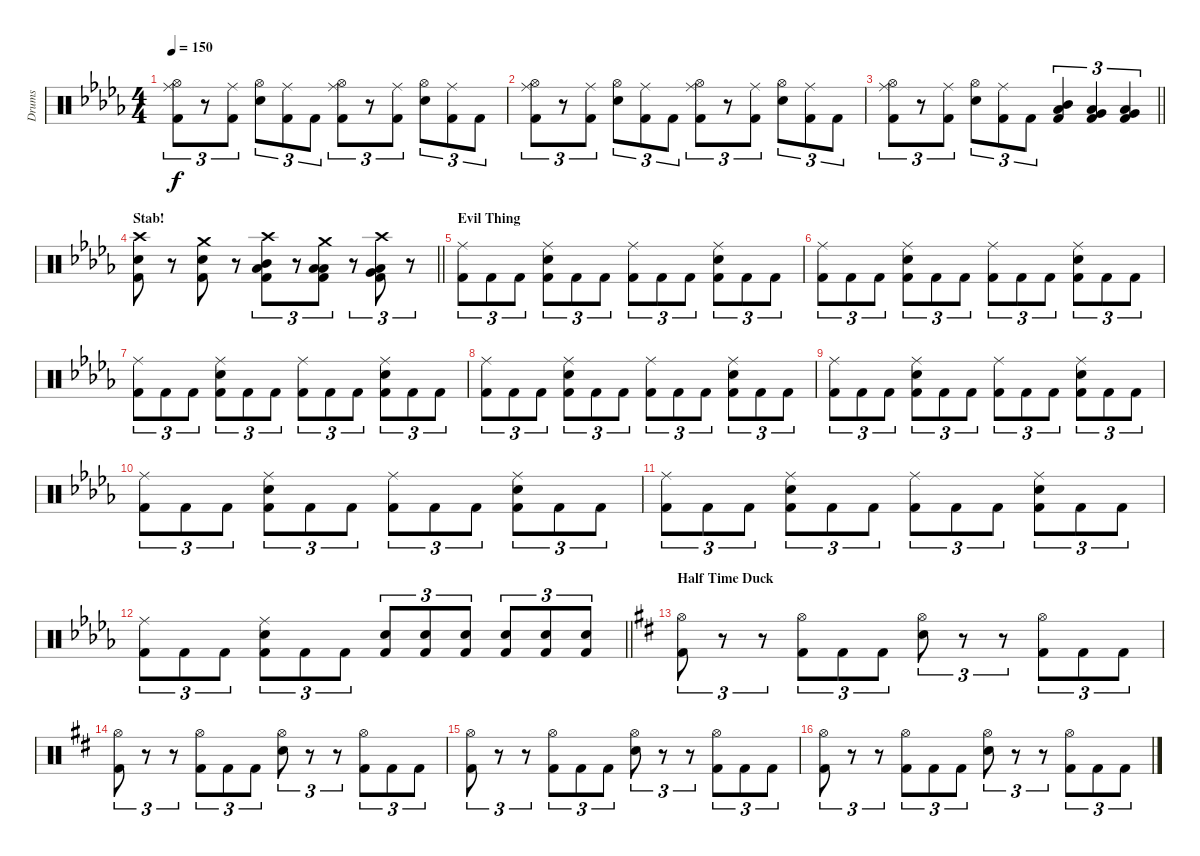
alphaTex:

\track ("Drums" "Drums") {instrument percussion}
\staff {score}
\articulation defaults
\ts (4 4)
\tempo 150
\clef neutral
\ks bbminor
("Hi-Hat (open)" "Ride (middle)" "Kick (hit) 2").8{tu (3 2) dy f} r.8{tu (3 2)} ("Ride (middle)" "Kick (hit) 2").8{tu (3 2)} ("Hi-Hat (open)" "Snare (hit) 2").8{tu (3 2)} ("Ride (middle)" "Kick (hit) 2").8{tu (3 2)} "Kick (hit) 2".8{tu (3 2)} ("Hi-Hat (open)" "Ride (middle)" "Kick (hit) 2").8{tu (3 2)} r.8{tu (3 2)} ("Ride (middle)" "Kick (hit) 2").8{tu (3 2)} ("Hi-Hat (open)" "Snare (hit) 2").8{tu (3 2)} ("Ride (middle)" "Kick (hit) 2").8{tu (3 2)} "Kick (hit) 2".8{tu (3 2)} |
("Hi-Hat (open)" "Ride (middle)" "Kick (hit) 2").8{tu (3 2)} r.8{tu (3 2)} ("Ride (middle)" "Kick (hit) 2").8{tu (3 2)} ("Hi-Hat (open)" "Snare (hit) 2").8{tu (3 2)} ("Ride (middle)" "Kick (hit) 2").8{tu (3 2)} "Kick (hit) 2".8{tu (3 2)} ("Hi-Hat (open)" "Ride (middle)" "Kick (hit) 2").8{tu (3 2)} r.8{tu (3 2)} ("Ride (middle)" "Kick (hit) 2").8{tu (3 2)} ("Hi-Hat (open)" "Snare (hit) 2").8{tu (3 2)} ("Ride (middle)" "Kick (hit) 2").8{tu (3 2)} "Kick (hit) 2".8{tu (3 2)} |
\barLineRight lightlight
("Hi-Hat (open)" "Ride (middle)" "Kick (hit) 2").8{tu (3 2)} r.8{tu (3 2)} ("Ride (middle)" "Kick (hit) 2").8{tu (3 2)} ("Hi-Hat (open)" "Snare (hit) 2").8{tu (3 2)} ("Ride (middle)" "Kick (hit) 2").8{tu (3 2)} "Kick (hit) 2".8{tu (3 2)} ("Mid Tom (hit)" "Low Tom (hit)" "Kick (hit) 2").4{tu (3 2)} ("Low Tom (hit)" "Very Low Tom (hit)" "Kick (hit) 2").4{tu (3 2)} ("Very Low Tom (hit)" "Low Floor Tom (hit)" "Kick (hit) 2").4{tu (3 2)} |
\section ("" "Stab!")
\barLineRight lightlight
("Crash high (hit)" "Snare (hit) 2" "Kick (hit) 2").8 r.8 ("Crash medium (hit)" "Snare (hit) 2" "Kick (hit) 2").8 r.8 ("Crash high (hit)" "Mid Tom (hit)" "Low Floor Tom (hit)" "Kick (hit) 2").8{tu (3 2)} r.8{tu (3 2)} ("Crash medium (hit)" "Low Tom (hit)" "Low Floor Tom (hit)" "Kick (hit) 2").8{tu (3 2)} r.8{tu (3 2)} ("Crash high (hit)" "Very Low Tom (hit)" "Low Floor Tom (hit)" "Kick (hit) 2").8{tu (3 2)} r.8{tu (3 2)} |
\section ("" "Evil Thing")
("Ride (middle)" "Kick (hit) 2").8{tu (3 2)} "Kick (hit) 2".8{tu (3 2)} "Kick (hit) 2".8{tu (3 2)} ("Ride (middle)" "Snare (hit) 2" "Kick (hit) 2").8{tu (3 2)} "Kick (hit) 2".8{tu (3 2)} "Kick (hit) 2".8{tu (3 2)} ("Ride (middle)" "Kick (hit) 2").8{tu (3 2)} "Kick (hit) 2".8{tu (3 2)} "Kick (hit) 2".8{tu (3 2)} ("Ride (middle)" "Snare (hit) 2" "Kick (hit) 2").8{tu (3 2)} "Kick (hit) 2".8{tu (3 2)} "Kick (hit) 2".8{tu (3 2)} |
("Ride (middle)" "Kick (hit) 2").8{tu (3 2)} "Kick (hit) 2".8{tu (3 2)} "Kick (hit) 2".8{tu (3 2)} ("Ride (middle)" "Snare (hit) 2" "Kick (hit) 2").8{tu (3 2)} "Kick (hit) 2".8{tu (3 2)} "Kick (hit) 2".8{tu (3 2)} ("Ride (middle)" "Kick (hit) 2").8{tu (3 2)} "Kick (hit) 2".8{tu (3 2)} "Kick (hit) 2".8{tu (3 2)} ("Ride (middle)" "Snare (hit) 2" "Kick (hit) 2").8{tu (3 2)} "Kick (hit) 2".8{tu (3 2)} "Kick (hit) 2".8{tu (3 2)} |
("Ride (middle)" "Kick (hit) 2").8{tu (3 2)} "Kick (hit) 2".8{tu (3 2)} "Kick (hit) 2".8{tu (3 2)} ("Ride (middle)" "Snare (hit) 2" "Kick (hit) 2").8{tu (3 2)} "Kick (hit) 2".8{tu (3 2)} "Kick (hit) 2".8{tu (3 2)} ("Ride (middle)" "Kick (hit) 2").8{tu (3 2)} "Kick (hit) 2".8{tu (3 2)} "Kick (hit) 2".8{tu (3 2)} ("Ride (middle)" "Snare (hit) 2" "Kick (hit) 2").8{tu (3 2)} "Kick (hit) 2".8{tu (3 2)} "Kick (hit) 2".8{tu (3 2)} |
("Ride (middle)" "Kick (hit) 2").8{tu (3 2)} "Kick (hit) 2".8{tu (3 2)} "Kick (hit) 2".8{tu (3 2)} ("Ride (middle)" "Snare (hit) 2" "Kick (hit) 2").8{tu (3 2)} "Kick (hit) 2".8{tu (3 2)} "Kick (hit) 2".8{tu (3 2)} ("Ride (middle)" "Kick (hit) 2").8{tu (3 2)} "Kick (hit) 2".8{tu (3 2)} "Kick (hit) 2".8{tu (3 2)} ("Ride (middle)" "Snare (hit) 2" "Kick (hit) 2").8{tu (3 2)} "Kick (hit) 2".8{tu (3 2)} "Kick (hit) 2".8{tu (3 2)} |
("Ride (middle)" "Kick (hit) 2").8{tu (3 2)} "Kick (hit) 2".8{tu (3 2)} "Kick (hit) 2".8{tu (3 2)} ("Ride (middle)" "Snare (hit) 2" "Kick (hit) 2").8{tu (3 2)} "Kick (hit) 2".8{tu (3 2)} "Kick (hit) 2".8{tu (3 2)} ("Ride (middle)" "Kick (hit) 2").8{tu (3 2)} "Kick (hit) 2".8{tu (3 2)} "Kick (hit) 2".8{tu (3 2)} ("Ride (middle)" "Snare (hit) 2" "Kick (hit) 2").8{tu (3 2)} "Kick (hit) 2".8{tu (3 2)} "Kick (hit) 2".8{tu (3 2)} |
("Ride (middle)" "Kick (hit) 2").8{tu (3 2)} "Kick (hit) 2".8{tu (3 2)} "Kick (hit) 2".8{tu (3 2)} ("Ride (middle)" "Snare (hit) 2" "Kick (hit) 2").8{tu (3 2)} "Kick (hit) 2".8{tu (3 2)} "Kick (hit) 2".8{tu (3 2)} ("Ride (middle)" "Kick (hit) 2").8{tu (3 2)} "Kick (hit) 2".8{tu (3 2)} "Kick (hit) 2".8{tu (3 2)} ("Ride (middle)" "Snare (hit) 2" "Kick (hit) 2").8{tu (3 2)} "Kick (hit) 2".8{tu (3 2)} "Kick (hit) 2".8{tu (3 2)} |
("Ride (middle)" "Kick (hit) 2").8{tu (3 2)} "Kick (hit) 2".8{tu (3 2)} "Kick (hit) 2".8{tu (3 2)} ("Ride (middle)" "Snare (hit) 2" "Kick (hit) 2").8{tu (3 2)} "Kick (hit) 2".8{tu (3 2)} "Kick (hit) 2".8{tu (3 2)} ("Ride (middle)" "Kick (hit) 2").8{tu (3 2)} "Kick (hit) 2".8{tu (3 2)} "Kick (hit) 2".8{tu (3 2)} ("Ride (middle)" "Snare (hit) 2" "Kick (hit) 2").8{tu (3 2)} "Kick (hit) 2".8{tu (3 2)} "Kick (hit) 2".8{tu (3 2)} |
\barLineRight lightlight
("Ride (middle)" "Kick (hit) 2").8{tu (3 2)} "Kick (hit) 2".8{tu (3 2)} "Kick (hit) 2".8{tu (3 2)} ("Ride (middle)" "Snare (hit) 2" "Kick (hit) 2").8{tu (3 2)} "Kick (hit) 2".8{tu (3 2)} "Kick (hit) 2".8{tu (3 2)} ("Snare (hit) 2" "Kick (hit) 2").8{tu (3 2)} ("Snare (hit) 2" "Kick (hit) 2").8{tu (3 2)} ("Snare (hit) 2" "Kick (hit) 2").8{tu (3 2)} ("Snare (hit) 2" "Kick (hit) 2").8{tu (3 2)} ("Snare (hit) 2" "Kick (hit) 2").8{tu (3 2)} ("Snare (hit) 2" "Kick (hit) 2").8{tu (3 2)} |
\section ("" "Half Time Duck")
\ks bminor
("Hi-Hat (open)" "Kick (hit) 2").8{tu (3 2)} r.8{tu (3 2)} r.8{tu (3 2)} ("Hi-Hat (open)" "Kick (hit) 2").8{tu (3 2)} "Kick (hit) 2".8{tu (3 2)} "Kick (hit) 2".8{tu (3 2)} ("Hi-Hat (open)" "Snare (hit) 2").8{tu (3 2)} r.8{tu (3 2)} r.8{tu (3 2)} ("Hi-Hat (open)" "Kick (hit) 2").8{tu (3 2)} "Kick (hit) 2".8{tu (3 2)} "Kick (hit) 2".8{tu (3 2)} |
("Hi-Hat (open)" "Kick (hit) 2").8{tu (3 2)} r.8{tu (3 2)} r.8{tu (3 2)} ("Hi-Hat (open)" "Kick (hit) 2").8{tu (3 2)} "Kick (hit) 2".8{tu (3 2)} "Kick (hit) 2".8{tu (3 2)} ("Hi-Hat (open)" "Snare (hit) 2").8{tu (3 2)} r.8{tu (3 2)} r.8{tu (3 2)} ("Hi-Hat (open)" "Kick (hit) 2").8{tu (3 2)} "Kick (hit) 2".8{tu (3 2)} "Kick (hit) 2".8{tu (3 2)} |
("Hi-Hat (open)" "Kick (hit) 2").8{tu (3 2)} r.8{tu (3 2)} r.8{tu (3 2)} ("Hi-Hat (open)" "Kick (hit) 2").8{tu (3 2)} "Kick (hit) 2".8{tu (3 2)} "Kick (hit) 2".8{tu (3 2)} ("Hi-Hat (open)" "Snare (hit) 2").8{tu (3 2)} r.8{tu (3 2)} r.8{tu (3 2)} ("Hi-Hat (open)" "Kick (hit) 2").8{tu (3 2)} "Kick (hit) 2".8{tu (3 2)} "Kick (hit) 2".8{tu (3 2)} |
("Hi-Hat (open)" "Kick (hit) 2").8{tu (3 2)} r.8{tu (3 2)} r.8{tu (3 2)} ("Hi-Hat (open)" "Kick (hit) 2").8{tu (3 2)} "Kick (hit) 2".8{tu (3 2)} "Kick (hit) 2".8{tu (3 2)} ("Hi-Hat (open)" "Snare (hit) 2").8{tu (3 2)} r.8{tu (3 2)} r.8{tu (3 2)} ("Hi-Hat (open)" "Kick (hit) 2").8{tu (3 2)} "Kick (hit) 2".8{tu (3 2)} "Kick (hit) 2".8{tu (3 2)}
